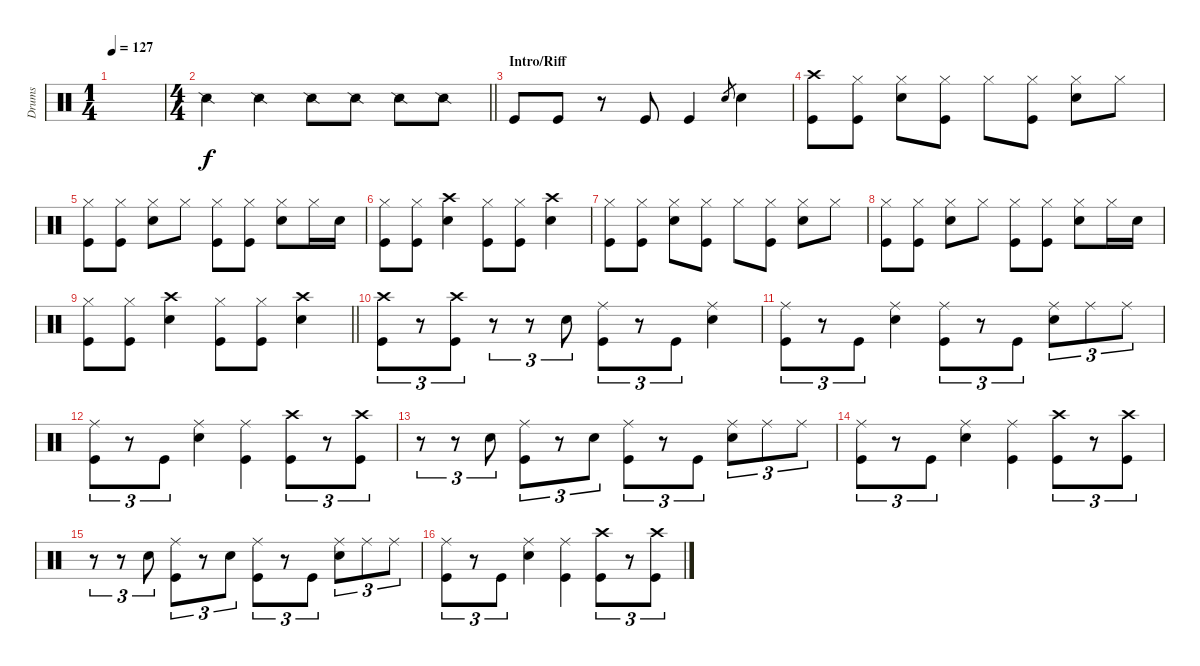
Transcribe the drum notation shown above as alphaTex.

\track ("Drums" "Drums") {instrument percussion}
\staff {score}
\articulation defaults
\ts (1 4)
\tempo 127
\clef neutral
\ks c
|
\ts (4 4)
\barLineRight lightlight "Snare (side stick) 2".4 "Snare (side stick) 2".4 "Snare (side stick) 2".8 "Snare (side stick) 2".8 "Snare (side stick) 2".8 "Snare (side stick) 2".8
|
\section ("" "Intro/Riff")
"Kick (hit)".8 "Kick (hit)".8 r.8 "Kick (hit)".8 "Kick (hit)".4 "Snare (hit) 2".8{gr} "Snare (hit) 2".4 |
("Crash high (hit)" "Kick (hit)").8 ("Hi-Hat (closed)" "Kick (hit)").8 ("Hi-Hat (closed)" "Snare (hit) 2").8 ("Hi-Hat (closed)" "Kick (hit)").8 "Hi-Hat (closed)".8 ("Hi-Hat (closed)" "Kick (hit)").8 ("Hi-Hat (closed)" "Snare (hit) 2").8 "Hi-Hat (closed)".8 |
("Hi-Hat (closed)" "Kick (hit)").8 ("Hi-Hat (closed)" "Kick (hit)").8 ("Hi-Hat (closed)" "Snare (hit) 2").8 "Hi-Hat (closed)".8 ("Hi-Hat (closed)" "Kick (hit)").8 ("Hi-Hat (closed)" "Kick (hit)").8 ("Hi-Hat (closed)" "Snare (hit) 2").8 "Hi-Hat (closed)".16 "Snare (hit) 2".16 |
("Hi-Hat (closed)" "Kick (hit)").8 ("Hi-Hat (closed)" "Kick (hit)").8 ("Crash high (hit)" "Snare (hit) 2").4 ("Hi-Hat (closed)" "Kick (hit)").8 ("Hi-Hat (closed)" "Kick (hit)").8 ("Crash high (hit)" "Snare (hit) 2").4 |
("Hi-Hat (closed)" "Kick (hit)").8 ("Hi-Hat (closed)" "Kick (hit)").8 ("Hi-Hat (closed)" "Snare (hit) 2").8 ("Hi-Hat (closed)" "Kick (hit)").8 "Hi-Hat (closed)".8 ("Hi-Hat (closed)" "Kick (hit)").8 ("Hi-Hat (closed)" "Snare (hit) 2").8 "Hi-Hat (closed)".8 |
("Hi-Hat (closed)" "Kick (hit)").8 ("Hi-Hat (closed)" "Kick (hit)").8 ("Hi-Hat (closed)" "Snare (hit) 2").8 "Hi-Hat (closed)".8 ("Hi-Hat (closed)" "Kick (hit)").8 ("Hi-Hat (closed)" "Kick (hit)").8 ("Hi-Hat (closed)" "Snare (hit) 2").8 "Hi-Hat (closed)".16 "Snare (hit) 2".16 |
\barLineRight lightlight
("Hi-Hat (closed)" "Kick (hit)").8 ("Hi-Hat (closed)" "Kick (hit)").8 ("Crash high (hit)" "Snare (hit) 2").4 ("Hi-Hat (closed)" "Kick (hit)").8 ("Hi-Hat (closed)" "Kick (hit)").8 ("Crash high (hit)" "Snare (hit) 2").4 |
("Crash high (hit)" "Kick (hit)").8{tu (3 2)} r.8{tu (3 2)} ("Kick (hit)" "Crash high (hit)").8{tu (3 2)} r.8{tu (3 2)} r.8{tu (3 2)} "Snare (hit) 2".8{tu (3 2)} ("Ride (middle)" "Kick (hit)").8{tu (3 2)} r.8{tu (3 2)} "Kick (hit)".8{tu (3 2)} ("Snare (hit) 2" "Ride (middle)").4 |
("Ride (middle)" "Kick (hit)").8{tu (3 2)} r.8{tu (3 2)} "Kick (hit)".8{tu (3 2)} ("Snare (hit) 2" "Ride (middle)").4 ("Ride (middle)" "Kick (hit)").8{tu (3 2)} r.8{tu (3 2)} "Kick (hit)".8{tu (3 2)} ("Snare (hit) 2" "Ride (middle)").8{tu (3 2)} "Ride (middle)".8{tu (3 2)} "Ride (middle)".8{tu (3 2)} |
("Ride (middle)" "Kick (hit)").8{tu (3 2)} r.8{tu (3 2)} "Kick (hit)".8{tu (3 2)} ("Snare (hit) 2" "Ride (middle)").4 ("Ride (middle)" "Kick (hit)").4 ("Crash high (hit)" "Kick (hit)").8{tu (3 2)} r.8{tu (3 2)} ("Crash high (hit)" "Kick (hit)").8{tu (3 2)} |
r.8{tu (3 2)} r.8{tu (3 2)} "Snare (hit) 2".8{tu (3 2)} ("Ride (middle)" "Kick (hit)").8{tu (3 2)} r.8{tu (3 2)} "Snare (hit) 2".8{tu (3 2)} ("Kick (hit)" "Ride (middle)").8{tu (3 2)} r.8{tu (3 2)} "Kick (hit)".8{tu (3 2)} ("Ride (middle)" "Snare (hit) 2").8{tu (3 2)} "Ride (middle)".8{tu (3 2)} "Ride (middle)".8{tu (3 2)} |
("Ride (middle)" "Kick (hit)").8{tu (3 2)} r.8{tu (3 2)} "Kick (hit)".8{tu (3 2)} ("Snare (hit) 2" "Ride (middle)").4 ("Ride (middle)" "Kick (hit)").4 ("Crash high (hit)" "Kick (hit)").8{tu (3 2)} r.8{tu (3 2)} ("Kick (hit)" "Crash high (hit)").8{tu (3 2)} |
r.8{tu (3 2)} r.8{tu (3 2)} "Snare (hit) 2".8{tu (3 2)} ("Kick (hit)" "Ride (middle)").8{tu (3 2)} r.8{tu (3 2)} "Snare (hit) 2".8{tu (3 2)} ("Kick (hit)" "Ride (middle)").8{tu (3 2)} r.8{tu (3 2)} "Kick (hit)".8{tu (3 2)} ("Snare (hit) 2" "Ride (middle)").8{tu (3 2)} "Ride (middle)".8{tu (3 2)} "Ride (middle)".8{tu (3 2)} |
("Ride (middle)" "Kick (hit)").8{tu (3 2)} r.8{tu (3 2)} "Kick (hit)".8{tu (3 2)} ("Snare (hit) 2" "Ride (middle)").4 ("Ride (middle)" "Kick (hit)").4 ("Crash high (hit)" "Kick (hit)").8{tu (3 2)} r.8{tu (3 2)} ("Kick (hit)" "Crash high (hit)").8{tu (3 2)}
